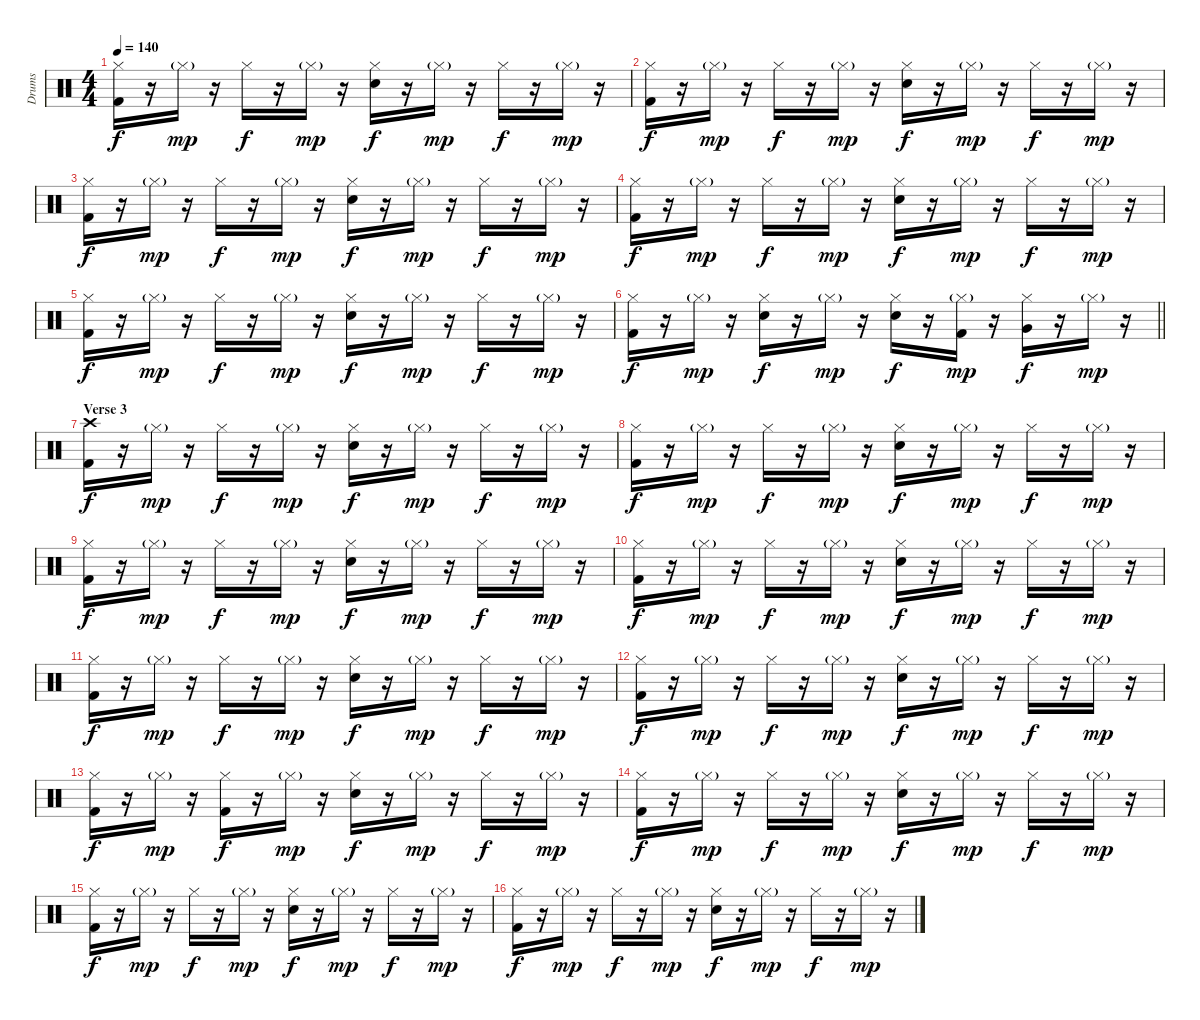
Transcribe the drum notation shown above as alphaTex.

\track ("Drums" "Drums") {instrument percussion}
\staff {score}
\articulation defaults
\ts (4 4)
\tempo 140
\clef neutral
\ks c
("Hi-Hat (closed)" "Kick (hit) 2").16{dy f} r.16 "Hi-Hat (closed)"{g}.16{dy mp} r.16 "Hi-Hat (closed)".16{dy f} r.16 "Hi-Hat (closed)"{g}.16{dy mp} r.16 ("Hi-Hat (closed)" "Snare (hit) 2").16{dy f} r.16 "Hi-Hat (closed)"{g}.16{dy mp} r.16 "Hi-Hat (closed)".16{dy f} r.16 "Hi-Hat (closed)"{g}.16{dy mp} r.16 |
("Hi-Hat (closed)" "Kick (hit) 2").16{dy f} r.16 "Hi-Hat (closed)"{g}.16{dy mp} r.16 "Hi-Hat (closed)".16{dy f} r.16 "Hi-Hat (closed)"{g}.16{dy mp} r.16 ("Hi-Hat (closed)" "Snare (hit) 2").16{dy f} r.16 "Hi-Hat (closed)"{g}.16{dy mp} r.16 "Hi-Hat (closed)".16{dy f} r.16 "Hi-Hat (closed)"{g}.16{dy mp} r.16 |
("Hi-Hat (closed)" "Kick (hit) 2").16{dy f} r.16 "Hi-Hat (closed)"{g}.16{dy mp} r.16 "Hi-Hat (closed)".16{dy f} r.16 "Hi-Hat (closed)"{g}.16{dy mp} r.16 ("Hi-Hat (closed)" "Snare (hit) 2").16{dy f} r.16 "Hi-Hat (closed)"{g}.16{dy mp} r.16 "Hi-Hat (closed)".16{dy f} r.16 "Hi-Hat (closed)"{g}.16{dy mp} r.16 |
("Hi-Hat (closed)" "Kick (hit) 2").16{dy f} r.16 "Hi-Hat (closed)"{g}.16{dy mp} r.16 "Hi-Hat (closed)".16{dy f} r.16 "Hi-Hat (closed)"{g}.16{dy mp} r.16 ("Hi-Hat (closed)" "Snare (hit) 2").16{dy f} r.16 "Hi-Hat (closed)"{g}.16{dy mp} r.16 "Hi-Hat (closed)".16{dy f} r.16 "Hi-Hat (closed)"{g}.16{dy mp} r.16 |
("Hi-Hat (closed)" "Kick (hit) 2").16{dy f} r.16 "Hi-Hat (closed)"{g}.16{dy mp} r.16 "Hi-Hat (closed)".16{dy f} r.16 "Hi-Hat (closed)"{g}.16{dy mp} r.16 ("Hi-Hat (closed)" "Snare (hit) 2").16{dy f} r.16 "Hi-Hat (closed)"{g}.16{dy mp} r.16 "Hi-Hat (closed)".16{dy f} r.16 "Hi-Hat (closed)"{g}.16{dy mp} r.16 |
\barLineRight lightlight
("Hi-Hat (closed)" "Kick (hit) 2").16{dy f} r.16 "Hi-Hat (closed)"{g}.16{dy mp} r.16 ("Hi-Hat (closed)" "Snare (hit) 2").16{dy f} r.16 "Hi-Hat (closed)"{g}.16{dy mp} r.16 ("Hi-Hat (closed)" "Snare (hit) 2").16{dy f} r.16 ("Hi-Hat (closed)"{g} "Kick (hit) 2").16{dy mp} r.16 ("Hi-Hat (closed)" "Very Low Tom (hit)").16{dy f} r.16 "Hi-Hat (closed)"{g}.16{dy mp} r.16 |
\section ("" "Verse 3")
("Crash high (hit)" "Kick (hit) 2").16{dy f} r.16 "Hi-Hat (closed)"{g}.16{dy mp} r.16 "Hi-Hat (closed)".16{dy f} r.16 "Hi-Hat (closed)"{g}.16{dy mp} r.16 ("Hi-Hat (closed)" "Snare (hit) 2").16{dy f} r.16 "Hi-Hat (closed)"{g}.16{dy mp} r.16 "Hi-Hat (closed)".16{dy f} r.16 "Hi-Hat (closed)"{g}.16{dy mp} r.16 |
("Hi-Hat (closed)" "Kick (hit) 2").16{dy f} r.16 "Hi-Hat (closed)"{g}.16{dy mp} r.16 "Hi-Hat (closed)".16{dy f} r.16 "Hi-Hat (closed)"{g}.16{dy mp} r.16 ("Hi-Hat (closed)" "Snare (hit) 2").16{dy f} r.16 "Hi-Hat (closed)"{g}.16{dy mp} r.16 "Hi-Hat (closed)".16{dy f} r.16 "Hi-Hat (closed)"{g}.16{dy mp} r.16 |
("Hi-Hat (closed)" "Kick (hit) 2").16{dy f} r.16 "Hi-Hat (closed)"{g}.16{dy mp} r.16 "Hi-Hat (closed)".16{dy f} r.16 "Hi-Hat (closed)"{g}.16{dy mp} r.16 ("Hi-Hat (closed)" "Snare (hit) 2").16{dy f} r.16 "Hi-Hat (closed)"{g}.16{dy mp} r.16 "Hi-Hat (closed)".16{dy f} r.16 "Hi-Hat (closed)"{g}.16{dy mp} r.16 |
("Hi-Hat (closed)" "Kick (hit) 2").16{dy f} r.16 "Hi-Hat (closed)"{g}.16{dy mp} r.16 "Hi-Hat (closed)".16{dy f} r.16 "Hi-Hat (closed)"{g}.16{dy mp} r.16 ("Hi-Hat (closed)" "Snare (hit) 2").16{dy f} r.16 "Hi-Hat (closed)"{g}.16{dy mp} r.16 "Hi-Hat (closed)".16{dy f} r.16 "Hi-Hat (closed)"{g}.16{dy mp} r.16 |
("Hi-Hat (closed)" "Kick (hit) 2").16{dy f} r.16 "Hi-Hat (closed)"{g}.16{dy mp} r.16 "Hi-Hat (closed)".16{dy f} r.16 "Hi-Hat (closed)"{g}.16{dy mp} r.16 ("Hi-Hat (closed)" "Snare (hit) 2").16{dy f} r.16 "Hi-Hat (closed)"{g}.16{dy mp} r.16 "Hi-Hat (closed)".16{dy f} r.16 "Hi-Hat (closed)"{g}.16{dy mp} r.16 |
("Hi-Hat (closed)" "Kick (hit) 2").16{dy f} r.16 "Hi-Hat (closed)"{g}.16{dy mp} r.16 "Hi-Hat (closed)".16{dy f} r.16 "Hi-Hat (closed)"{g}.16{dy mp} r.16 ("Hi-Hat (closed)" "Snare (hit) 2").16{dy f} r.16 "Hi-Hat (closed)"{g}.16{dy mp} r.16 "Hi-Hat (closed)".16{dy f} r.16 "Hi-Hat (closed)"{g}.16{dy mp} r.16 |
("Hi-Hat (closed)" "Kick (hit) 2").16{dy f} r.16 "Hi-Hat (closed)"{g}.16{dy mp} r.16 ("Hi-Hat (closed)" "Kick (hit) 2").16{dy f} r.16 "Hi-Hat (closed)"{g}.16{dy mp} r.16 ("Hi-Hat (closed)" "Snare (hit) 2").16{dy f} r.16 "Hi-Hat (closed)"{g}.16{dy mp} r.16 "Hi-Hat (closed)".16{dy f} r.16 "Hi-Hat (closed)"{g}.16{dy mp} r.16 |
("Hi-Hat (closed)" "Kick (hit) 2").16{dy f} r.16 "Hi-Hat (closed)"{g}.16{dy mp} r.16 "Hi-Hat (closed)".16{dy f} r.16 "Hi-Hat (closed)"{g}.16{dy mp} r.16 ("Hi-Hat (closed)" "Snare (hit) 2").16{dy f} r.16 "Hi-Hat (closed)"{g}.16{dy mp} r.16 "Hi-Hat (closed)".16{dy f} r.16 "Hi-Hat (closed)"{g}.16{dy mp} r.16 |
("Hi-Hat (closed)" "Kick (hit) 2").16{dy f} r.16 "Hi-Hat (closed)"{g}.16{dy mp} r.16 "Hi-Hat (closed)".16{dy f} r.16 "Hi-Hat (closed)"{g}.16{dy mp} r.16 ("Hi-Hat (closed)" "Snare (hit) 2").16{dy f} r.16 "Hi-Hat (closed)"{g}.16{dy mp} r.16 "Hi-Hat (closed)".16{dy f} r.16 "Hi-Hat (closed)"{g}.16{dy mp} r.16 |
("Hi-Hat (closed)" "Kick (hit) 2").16{dy f} r.16 "Hi-Hat (closed)"{g}.16{dy mp} r.16 "Hi-Hat (closed)".16{dy f} r.16 "Hi-Hat (closed)"{g}.16{dy mp} r.16 ("Hi-Hat (closed)" "Snare (hit) 2").16{dy f} r.16 "Hi-Hat (closed)"{g}.16{dy mp} r.16 "Hi-Hat (closed)".16{dy f} r.16 "Hi-Hat (closed)"{g}.16{dy mp} r.16
